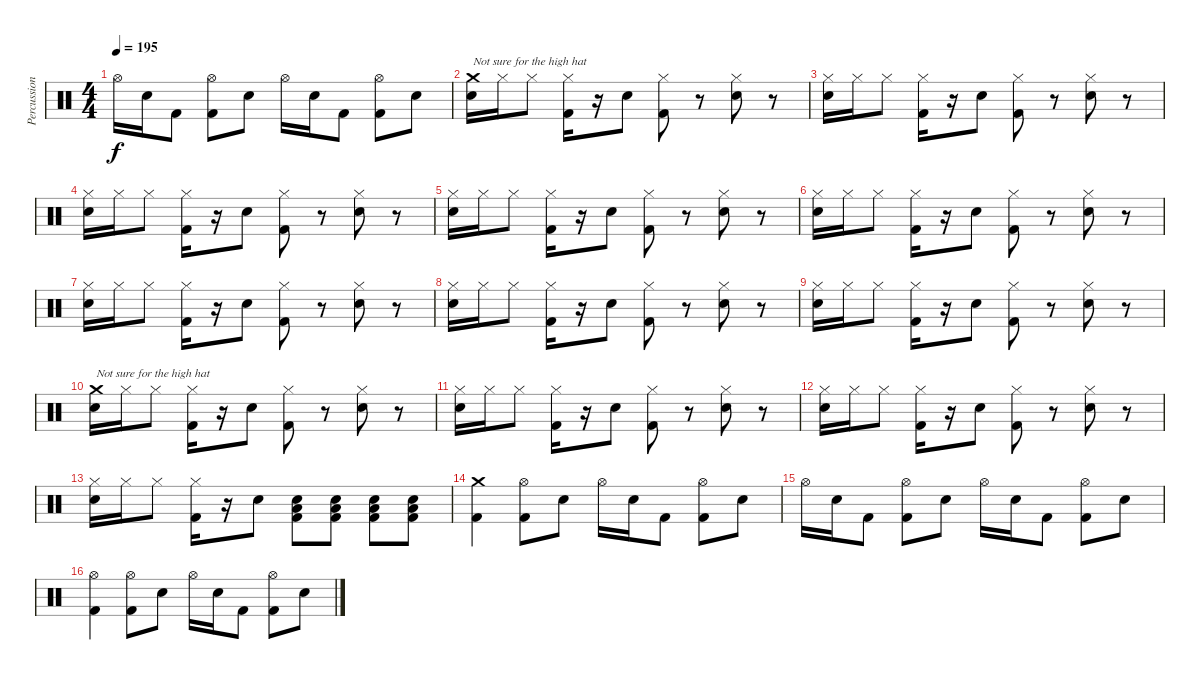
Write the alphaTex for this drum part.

\track ("Percussions" "Percussion") {instrument percussion}
\staff {score}
\articulation defaults
\ts (4 4)
\tempo 195
\clef neutral
\ks c "Hi-Hat (open)".16{dy f} "Electric Snare (hit)".16 "Kick (hit) 2".8
("Kick (hit) 2" "Hi-Hat (open)").8 "Electric Snare (hit)".8 "Hi-Hat (open)".16 "Electric Snare (hit)".16 "Kick (hit) 2".8 ("Kick (hit) 2" "Hi-Hat (open)").8 "Electric Snare (hit)".8 |
("Electric Snare (hit)" "Crash medium (hit)").16{txt "Not sure for the high hat"} "Hi-Hat (closed)".16 "Hi-Hat (closed)".8 ("Kick (hit) 2" "Hi-Hat (closed)").16 r.16 "Electric Snare (hit)".8 ("Kick (hit) 2" "Hi-Hat (closed)").8 r.8 ("Electric Snare (hit)" "Hi-Hat (closed)").8 r.8 |
("Electric Snare (hit)" "Hi-Hat (closed)").16 "Hi-Hat (closed)".16 "Hi-Hat (closed)".8 ("Kick (hit) 2" "Hi-Hat (closed)").16 r.16 "Electric Snare (hit)".8 ("Kick (hit) 2" "Hi-Hat (closed)").8 r.8 ("Electric Snare (hit)" "Hi-Hat (closed)").8 r.8 |
("Electric Snare (hit)" "Hi-Hat (closed)").16 "Hi-Hat (closed)".16 "Hi-Hat (closed)".8 ("Kick (hit) 2" "Hi-Hat (closed)").16 r.16 "Electric Snare (hit)".8 ("Kick (hit) 2" "Hi-Hat (closed)").8 r.8 ("Electric Snare (hit)" "Hi-Hat (closed)").8 r.8 |
("Electric Snare (hit)" "Hi-Hat (closed)").16 "Hi-Hat (closed)".16 "Hi-Hat (closed)".8 ("Kick (hit) 2" "Hi-Hat (closed)").16 r.16 "Electric Snare (hit)".8 ("Kick (hit) 2" "Hi-Hat (closed)").8 r.8 ("Electric Snare (hit)" "Hi-Hat (closed)").8 r.8 |
("Electric Snare (hit)" "Hi-Hat (closed)").16 "Hi-Hat (closed)".16 "Hi-Hat (closed)".8 ("Kick (hit) 2" "Hi-Hat (closed)").16 r.16 "Electric Snare (hit)".8 ("Kick (hit) 2" "Hi-Hat (closed)").8 r.8 ("Electric Snare (hit)" "Hi-Hat (closed)").8 r.8 |
("Electric Snare (hit)" "Hi-Hat (closed)").16 "Hi-Hat (closed)".16 "Hi-Hat (closed)".8 ("Kick (hit) 2" "Hi-Hat (closed)").16 r.16 "Electric Snare (hit)".8 ("Kick (hit) 2" "Hi-Hat (closed)").8 r.8 ("Electric Snare (hit)" "Hi-Hat (closed)").8 r.8 |
("Electric Snare (hit)" "Hi-Hat (closed)").16 "Hi-Hat (closed)".16 "Hi-Hat (closed)".8 ("Kick (hit) 2" "Hi-Hat (closed)").16 r.16 "Electric Snare (hit)".8 ("Kick (hit) 2" "Hi-Hat (closed)").8 r.8 ("Electric Snare (hit)" "Hi-Hat (closed)").8 r.8 |
("Electric Snare (hit)" "Hi-Hat (closed)").16 "Hi-Hat (closed)".16 "Hi-Hat (closed)".8 ("Kick (hit) 2" "Hi-Hat (closed)").16 r.16 "Electric Snare (hit)".8 ("Kick (hit) 2" "Hi-Hat (closed)").8 r.8 ("Electric Snare (hit)" "Hi-Hat (closed)").8 r.8 |
("Electric Snare (hit)" "Crash medium (hit)").16{txt "Not sure for the high hat"} "Hi-Hat (closed)".16 "Hi-Hat (closed)".8 ("Kick (hit) 2" "Hi-Hat (closed)").16 r.16 "Electric Snare (hit)".8 ("Kick (hit) 2" "Hi-Hat (closed)").8 r.8 ("Electric Snare (hit)" "Hi-Hat (closed)").8 r.8 |
("Electric Snare (hit)" "Hi-Hat (closed)").16 "Hi-Hat (closed)".16 "Hi-Hat (closed)".8 ("Kick (hit) 2" "Hi-Hat (closed)").16 r.16 "Electric Snare (hit)".8 ("Kick (hit) 2" "Hi-Hat (closed)").8 r.8 ("Electric Snare (hit)" "Hi-Hat (closed)").8 r.8 |
("Electric Snare (hit)" "Hi-Hat (closed)").16 "Hi-Hat (closed)".16 "Hi-Hat (closed)".8 ("Kick (hit) 2" "Hi-Hat (closed)").16 r.16 "Electric Snare (hit)".8 ("Kick (hit) 2" "Hi-Hat (closed)").8 r.8 ("Electric Snare (hit)" "Hi-Hat (closed)").8 r.8 |
("Electric Snare (hit)" "Hi-Hat (closed)").16 "Hi-Hat (closed)".16 "Hi-Hat (closed)".8 ("Kick (hit) 2" "Hi-Hat (closed)").16 r.16 "Electric Snare (hit)".8 ("Electric Snare (hit)" "Kick (hit) 2" "Low Floor Tom (hit)").8 ("Electric Snare (hit)" "Kick (hit) 2" "Low Floor Tom (hit)").8 ("Electric Snare (hit)" "Kick (hit) 2" "Low Floor Tom (hit)").8 ("Electric Snare (hit)" "Kick (hit) 2" "Low Floor Tom (hit)").8 |
("Kick (hit) 2" "Crash medium (hit)").4 ("Kick (hit) 2" "Hi-Hat (open)").8 "Electric Snare (hit)".8 "Hi-Hat (open)".16 "Electric Snare (hit)".16 "Kick (hit) 2".8 ("Kick (hit) 2" "Hi-Hat (open)").8 "Electric Snare (hit)".8 |
"Hi-Hat (open)".16 "Electric Snare (hit)".16 "Kick (hit) 2".8 ("Kick (hit) 2" "Hi-Hat (open)").8 "Electric Snare (hit)".8 "Hi-Hat (open)".16 "Electric Snare (hit)".16 "Kick (hit) 2".8 ("Kick (hit) 2" "Hi-Hat (open)").8 "Electric Snare (hit)".8 |
("Kick (hit) 2" "Hi-Hat (open)").4 ("Kick (hit) 2" "Hi-Hat (open)").8 "Electric Snare (hit)".8 "Hi-Hat (open)".16 "Electric Snare (hit)".16 "Kick (hit) 2".8 ("Kick (hit) 2" "Hi-Hat (open)").8 "Electric Snare (hit)".8
